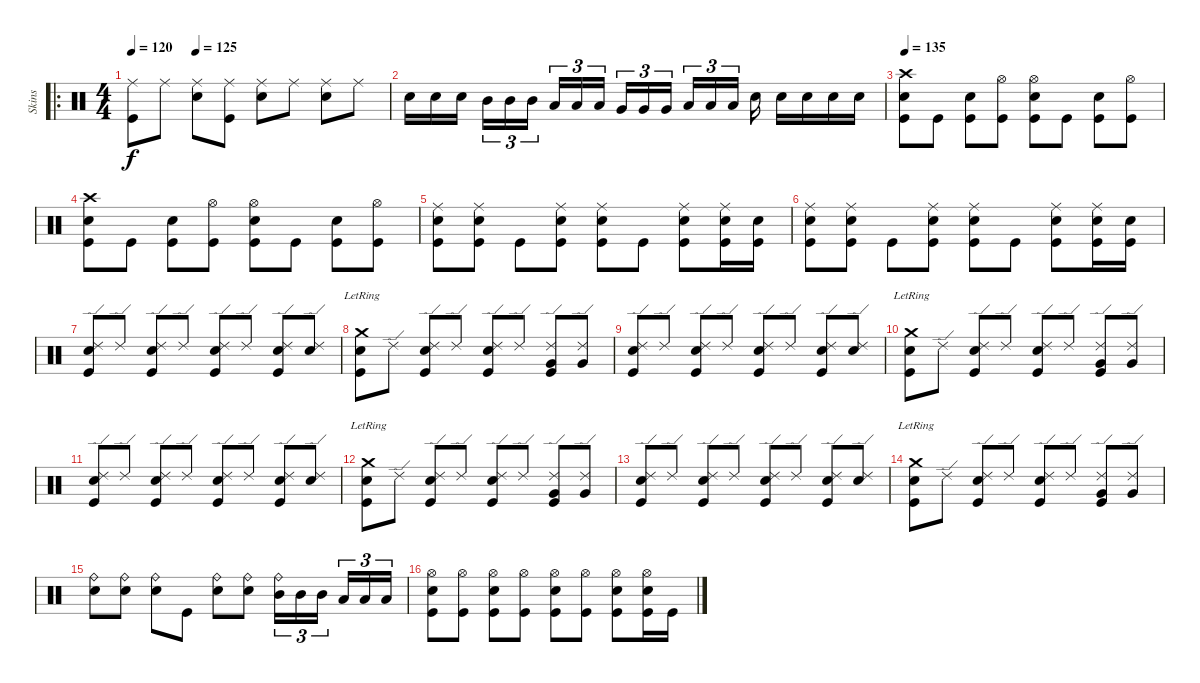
\track ("Skins" "Skins") {instrument percussion}
\staff {score}
\articulation defaults
\ro
\ts (4 4)
\tempo 120
\tempo 115
\tempo (125 0.25)
\tempo 120
\clef neutral
\ks c
("Ride (middle)" "Kick (hit)").8{dy f} "Ride (middle)".8 ("Ride (middle)" "Electric Snare (hit)").8 ("Ride (middle)" "Kick (hit)").8 ("Ride (middle)" "Electric Snare (hit)").8 "Ride (middle)".8 ("Ride (middle)" "Electric Snare (hit)").8 "Ride (middle)".8 |
"Electric Snare (hit)".16 "Electric Snare (hit)".16 "Electric Snare (hit)".16 "Mid Tom (hit)".16{tu (3 2)} "Mid Tom (hit)".16{tu (3 2)} "Mid Tom (hit)".16{tu (3 2)} "Low Tom (hit)".16{tu (3 2)} "Low Tom (hit)".16{tu (3 2)} "Low Tom (hit)".16{tu (3 2)} "Very Low Tom (hit)".16{tu (3 2)} "Very Low Tom (hit)".16{tu (3 2)} "Very Low Tom (hit)".16{tu (3 2)} "Low Floor Tom (hit)".16{tu (3 2)} "Low Floor Tom (hit)".16{tu (3 2)} "Low Floor Tom (hit)".16{tu (3 2)} "Snare (hit) 2".16 "Snare (hit) 2".16 "Electric Snare (hit)".16 "Electric Snare (hit)".16 "Snare (hit) 2".16 |
\tempo 135
("Crash high (hit)" "Electric Snare (hit)" "Kick (hit)").8 "Kick (hit)".8 ("Electric Snare (hit)" "Kick (hit)").8 ("Hi-Hat (open)" "Kick (hit)").8 ("Hi-Hat (open)" "Electric Snare (hit)" "Kick (hit)").8 "Kick (hit)".8 ("Electric Snare (hit)" "Kick (hit)").8 ("Hi-Hat (open)" "Kick (hit)").8 |
("Crash high (hit)" "Electric Snare (hit)" "Kick (hit)").8 "Kick (hit)".8 ("Electric Snare (hit)" "Kick (hit)").8 ("Hi-Hat (open)" "Kick (hit)").8 ("Hi-Hat (open)" "Electric Snare (hit)" "Kick (hit)").8 "Kick (hit)".8 ("Electric Snare (hit)" "Kick (hit)").8 ("Hi-Hat (open)" "Kick (hit)").8 |
("Ride (middle)" "Snare (hit) 2" "Kick (hit)").8 ("Ride (middle)" "Snare (hit) 2" "Kick (hit)").8 "Kick (hit)".8 ("Ride (middle)" "Snare (hit) 2" "Kick (hit)").8 ("Ride (middle)" "Snare (hit) 2" "Kick (hit)").8 "Kick (hit)".8 ("Ride (middle)" "Snare (hit) 2" "Kick (hit)").8 ("Ride (middle)" "Snare (hit) 2" "Kick (hit)").16 ("Snare (hit) 2" "Kick (hit)").16 |
("Ride (middle)" "Snare (hit) 2" "Kick (hit)").8 ("Ride (middle)" "Snare (hit) 2" "Kick (hit)").8 "Kick (hit)".8 ("Ride (middle)" "Snare (hit) 2" "Kick (hit)").8 ("Ride (middle)" "Snare (hit) 2" "Kick (hit)").8 "Kick (hit)".8 ("Ride (middle)" "Snare (hit) 2" "Kick (hit)").8 ("Ride (middle)" "Snare (hit) 2" "Kick (hit)").16 ("Snare (hit) 2" "Kick (hit)").16 |
("Ride (edge) 2" "Electric Snare (hit)" "Kick (hit)").8 "Ride (edge) 2".8 ("Ride (edge) 2" "Electric Snare (hit)" "Kick (hit)").8 "Ride (edge) 2".8 ("Ride (edge) 2" "Electric Snare (hit)" "Kick (hit)").8 "Ride (edge) 2".8 ("Ride (edge) 2" "Snare (hit) 2" "Kick (hit)").8 ("Ride (edge) 2" "Snare (hit) 2").8 |
("Crash medium (hit)"{lr} "Electric Snare (hit)" "Kick (hit)").8 "Ride (edge) 2".8 ("Ride (edge) 2" "Electric Snare (hit)" "Kick (hit)").8 "Ride (edge) 2".8 ("Ride (edge) 2" "Electric Snare (hit)" "Kick (hit)").8 "Ride (edge) 2".8 ("Ride (edge) 2" "Very Low Tom (hit)" "Kick (hit)").8 ("Ride (edge) 2" "Very Low Tom (hit)").8 |
("Ride (edge) 2" "Electric Snare (hit)" "Kick (hit)").8 "Ride (edge) 2".8 ("Ride (edge) 2" "Electric Snare (hit)" "Kick (hit)").8 "Ride (edge) 2".8 ("Ride (edge) 2" "Electric Snare (hit)" "Kick (hit)").8 "Ride (edge) 2".8 ("Ride (edge) 2" "Snare (hit) 2" "Kick (hit)").8 ("Ride (edge) 2" "Snare (hit) 2").8 |
("Crash medium (hit)"{lr} "Electric Snare (hit)" "Kick (hit)").8 "Ride (edge) 2".8 ("Ride (edge) 2" "Electric Snare (hit)" "Kick (hit)").8 "Ride (edge) 2".8 ("Ride (edge) 2" "Electric Snare (hit)" "Kick (hit)").8 "Ride (edge) 2".8 ("Ride (edge) 2" "Very Low Tom (hit)" "Kick (hit)").8 ("Ride (edge) 2" "Very Low Tom (hit)").8 |
("Ride (edge) 2" "Electric Snare (hit)" "Kick (hit)").8 "Ride (edge) 2".8 ("Ride (edge) 2" "Electric Snare (hit)" "Kick (hit)").8 "Ride (edge) 2".8 ("Ride (edge) 2" "Electric Snare (hit)" "Kick (hit)").8 "Ride (edge) 2".8 ("Ride (edge) 2" "Snare (hit) 2" "Kick (hit)").8 ("Ride (edge) 2" "Snare (hit) 2").8 |
("Crash medium (hit)"{lr} "Electric Snare (hit)" "Kick (hit)").8 "Ride (edge) 2".8 ("Ride (edge) 2" "Electric Snare (hit)" "Kick (hit)").8 "Ride (edge) 2".8 ("Ride (edge) 2" "Electric Snare (hit)" "Kick (hit)").8 "Ride (edge) 2".8 ("Ride (edge) 2" "Very Low Tom (hit)" "Kick (hit)").8 ("Ride (edge) 2" "Very Low Tom (hit)").8 |
("Ride (edge) 2" "Electric Snare (hit)" "Kick (hit)").8 "Ride (edge) 2".8 ("Ride (edge) 2" "Electric Snare (hit)" "Kick (hit)").8 "Ride (edge) 2".8 ("Ride (edge) 2" "Electric Snare (hit)" "Kick (hit)").8 "Ride (edge) 2".8 ("Ride (edge) 2" "Snare (hit) 2" "Kick (hit)").8 ("Ride (edge) 2" "Snare (hit) 2").8 |
("Crash medium (hit)"{lr} "Electric Snare (hit)" "Kick (hit)").8 "Ride (edge) 2".8 ("Ride (edge) 2" "Electric Snare (hit)" "Kick (hit)").8 "Ride (edge) 2".8 ("Ride (edge) 2" "Electric Snare (hit)" "Kick (hit)").8 "Ride (edge) 2".8 ("Ride (edge) 2" "Very Low Tom (hit)" "Kick (hit)").8 ("Ride (edge) 2" "Very Low Tom (hit)").8 |
("Ride (bell)" "Snare (hit) 2").8 ("Ride (bell)" "Snare (hit) 2").8 ("Ride (bell)" "Snare (hit) 2").8 "Kick (hit)".8 ("Ride (bell)" "Snare (hit) 2").8 ("Ride (bell)" "Electric Snare (hit)").8 ("Ride (bell)" "Mid Tom (hit)").16{tu (3 2)} "Mid Tom (hit)".16{tu (3 2)} "Mid Tom (hit)".16{tu (3 2)} "Low Tom (hit)".16{tu (3 2)} "Low Tom (hit)".16{tu (3 2)} "Low Tom (hit)".16{tu (3 2)} |
("Hi-Hat (open)" "Snare (hit) 2" "Kick (hit)").8 ("Hi-Hat (open)" "Kick (hit)").8 ("Hi-Hat (open)" "Snare (hit) 2" "Kick (hit)").8 ("Hi-Hat (open)" "Kick (hit)").8 ("Hi-Hat (open)" "Snare (hit) 2" "Kick (hit)").8 ("Hi-Hat (open)" "Kick (hit)").8 ("Hi-Hat (open)" "Electric Snare (hit)" "Kick (hit)").8 ("Hi-Hat (open)" "Electric Snare (hit)" "Kick (hit)").16 "Kick (hit)".16
